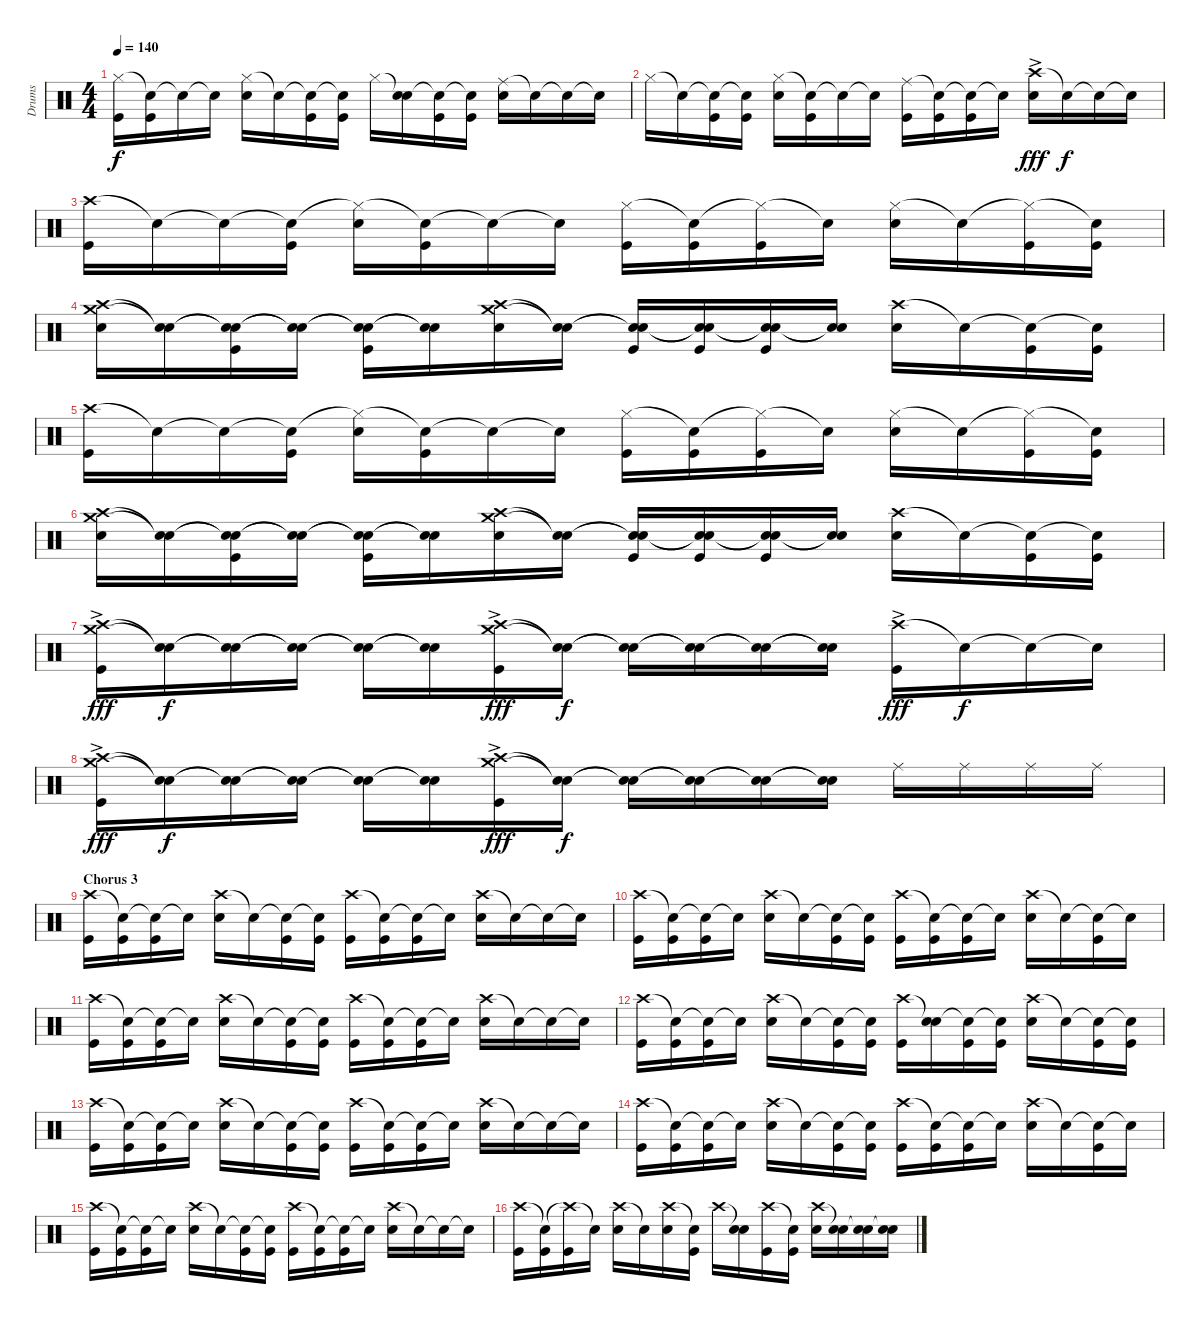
\track ("Drums" "Drums") {instrument percussion}
\staff {score}
\articulation defaults
\ts (4 4)
\tempo 140
\clef neutral
\ks c
("Hi-Hat (closed)" "Kick (hit)").16{dy f} ("Snare (hit)"{t} "Kick (hit)").16 "Snare (hit)"{t}.16 "Snare (hit)"{t}.16 ("Hi-Hat (closed)" "Electric Snare (hit)").16 "Snare (hit)"{t}.16 ("Snare (hit)"{t} "Kick (hit)").16 ("Snare (hit)"{t} "Kick (hit)").16 "Hi-Hat (closed)".16 ("Snare (hit)"{t} "Electric Snare (hit)").16 ("Snare (hit)"{t} "Kick (hit)").16 ("Snare (hit)"{t} "Kick (hit)").16 ("Ride (middle)" "Electric Snare (hit)").16 "Snare (hit)"{t}.16 "Snare (hit)"{t}.16 "Snare (hit)"{t}.16 |
"Hi-Hat (closed)".16 "Snare (hit)"{t}.16 ("Snare (hit)"{t} "Kick (hit)").16 ("Snare (hit)"{t} "Kick (hit)").16 ("Hi-Hat (closed)" "Electric Snare (hit)").16 ("Snare (hit)"{t} "Kick (hit)").16 "Snare (hit)"{t}.16 "Snare (hit)"{t}.16 ("Ride (middle)" "Kick (hit)").16 ("Snare (hit)"{t} "Kick (hit)").16 ("Snare (hit)"{t} "Kick (hit)").16 "Snare (hit)"{t}.16 ("Crash high (hit)"{ac} "Electric Snare (hit)").16{dy fff} "Snare (hit)"{t}.16{dy f} "Snare (hit)"{t}.16 "Snare (hit)"{t}.16 |
("Crash high (hit)" "Kick (hit)").16 "Snare (hit)"{t}.16 "Snare (hit)"{t}.16 ("Snare (hit)"{t} "Kick (hit)").16 ("Hi-Hat (closed)"{t} "Electric Snare (hit)").16 ("Snare (hit)"{t} "Kick (hit)").16 "Snare (hit)"{t}.16 "Snare (hit)"{t}.16 ("Hi-Hat (closed)" "Kick (hit)").16 ("Snare (hit)"{t} "Kick (hit)").16 ("Hi-Hat (closed)"{t} "Kick (hit)").16 "Snare (hit)"{t}.16 ("Hi-Hat (closed)" "Electric Snare (hit)").16 "Snare (hit)"{t}.16 ("Hi-Hat (closed)"{t} "Kick (hit)").16 ("Snare (hit)"{t} "Kick (hit)").16 |
("Crash medium (hit)" "Crash high (hit)" "Electric Snare (hit)").16 ("Snare (hit)"{t} "Snare (hit)"{t}).16 ("Snare (hit)"{t} "Snare (hit)"{t} "Kick (hit)").16 ("Snare (hit)"{t} "Snare (hit)"{t}).16 ("Snare (hit)"{t} "Snare (hit)"{t} "Kick (hit)").16 ("Snare (hit)"{t} "Snare (hit)"{t}).16 ("Crash medium (hit)" "Crash high (hit)" "Electric Snare (hit)").16 ("Snare (hit)"{t} "Snare (hit)"{t}).16 ("Snare (hit)"{t} "Snare (hit)"{t} "Kick (hit)").16 ("Snare (hit)"{t} "Snare (hit)"{t} "Kick (hit)").16 ("Snare (hit)"{t} "Snare (hit)"{t} "Kick (hit)").16 ("Snare (hit)"{t} "Snare (hit)"{t}).16 ("Crash high (hit)" "Electric Snare (hit)").16 "Snare (hit)"{t}.16 ("Snare (hit)"{t} "Kick (hit)").16 ("Snare (hit)"{t} "Kick (hit)").16 |
("Crash high (hit)" "Kick (hit)").16 "Snare (hit)"{t}.16 "Snare (hit)"{t}.16 ("Snare (hit)"{t} "Kick (hit)").16 ("Hi-Hat (closed)"{t} "Electric Snare (hit)").16 ("Snare (hit)"{t} "Kick (hit)").16 "Snare (hit)"{t}.16 "Snare (hit)"{t}.16 ("Hi-Hat (closed)" "Kick (hit)").16 ("Snare (hit)"{t} "Kick (hit)").16 ("Hi-Hat (closed)"{t} "Kick (hit)").16 "Snare (hit)"{t}.16 ("Hi-Hat (closed)" "Electric Snare (hit)").16 "Snare (hit)"{t}.16 ("Hi-Hat (closed)"{t} "Kick (hit)").16 ("Snare (hit)"{t} "Kick (hit)").16 |
("Crash medium (hit)" "Crash high (hit)" "Electric Snare (hit)").16 ("Snare (hit)"{t} "Snare (hit)"{t}).16 ("Snare (hit)"{t} "Snare (hit)"{t} "Kick (hit)").16 ("Snare (hit)"{t} "Snare (hit)"{t}).16 ("Snare (hit)"{t} "Snare (hit)"{t} "Kick (hit)").16 ("Snare (hit)"{t} "Snare (hit)"{t}).16 ("Crash medium (hit)" "Crash high (hit)" "Electric Snare (hit)").16 ("Snare (hit)"{t} "Snare (hit)"{t}).16 ("Snare (hit)"{t} "Snare (hit)"{t} "Kick (hit)").16 ("Snare (hit)"{t} "Snare (hit)"{t} "Kick (hit)").16 ("Snare (hit)"{t} "Snare (hit)"{t} "Kick (hit)").16 ("Snare (hit)"{t} "Snare (hit)"{t}).16 ("Crash high (hit)" "Electric Snare (hit)").16 "Snare (hit)"{t}.16 ("Snare (hit)"{t} "Kick (hit)").16 ("Snare (hit)"{t} "Kick (hit)").16 |
("Crash medium (hit)"{ac} "Crash high (hit)"{ac} "Kick (hit)").16{dy fff} ("Snare (hit)"{t} "Snare (hit)"{t}).16{dy f} ("Snare (hit)"{t} "Snare (hit)"{t}).16 ("Snare (hit)"{t} "Snare (hit)"{t}).16 ("Snare (hit)"{t} "Snare (hit)"{t}).16 ("Snare (hit)"{t} "Snare (hit)"{t}).16 ("Crash medium (hit)"{ac} "Crash high (hit)"{ac} "Kick (hit)").16{dy fff} ("Snare (hit)"{t} "Snare (hit)"{t}).16{dy f} ("Snare (hit)"{t} "Snare (hit)"{t}).16 ("Snare (hit)"{t} "Snare (hit)"{t}).16 ("Snare (hit)"{t} "Snare (hit)"{t}).16 ("Snare (hit)"{t} "Snare (hit)"{t}).16 ("Crash high (hit)"{ac} "Kick (hit)").16{dy fff} "Snare (hit)"{t}.16{dy f} "Snare (hit)"{t}.16 "Snare (hit)"{t}.16 |
("Crash medium (hit)"{ac} "Crash high (hit)"{ac} "Kick (hit)").16{dy fff} ("Snare (hit)"{t} "Snare (hit)"{t}).16{dy f} ("Snare (hit)"{t} "Snare (hit)"{t}).16 ("Snare (hit)"{t} "Snare (hit)"{t}).16 ("Snare (hit)"{t} "Snare (hit)"{t}).16 ("Snare (hit)"{t} "Snare (hit)"{t}).16 ("Crash medium (hit)"{ac} "Crash high (hit)"{ac} "Kick (hit)").16{dy fff} ("Snare (hit)"{t} "Snare (hit)"{t}).16{dy f} ("Snare (hit)"{t} "Snare (hit)"{t}).16 ("Snare (hit)"{t} "Snare (hit)"{t}).16 ("Snare (hit)"{t} "Snare (hit)"{t}).16 ("Snare (hit)"{t} "Snare (hit)"{t}).16 "Ride (middle)".16 "Ride (middle)".16 "Ride (middle)".16 "Ride (middle)".16 |
\section ("" "Chorus 3")
("Crash high (hit)" "Kick (hit)").16 ("Snare (hit)"{t} "Kick (hit)").16 ("Snare (hit)"{t} "Kick (hit)").16 "Snare (hit)"{t}.16 ("Crash high (hit)" "Electric Snare (hit)").16 "Snare (hit)"{t}.16 ("Snare (hit)"{t} "Kick (hit)").16 ("Snare (hit)"{t} "Kick (hit)").16 ("Crash high (hit)" "Kick (hit)").16 ("Snare (hit)"{t} "Kick (hit)").16 ("Snare (hit)"{t} "Kick (hit)").16 "Snare (hit)"{t}.16 ("Crash high (hit)" "Electric Snare (hit)").16 "Snare (hit)"{t}.16 "Snare (hit)"{t}.16 "Snare (hit)"{t}.16 |
("Crash high (hit)" "Kick (hit)").16 ("Snare (hit)"{t} "Kick (hit)").16 ("Snare (hit)"{t} "Kick (hit)").16 "Snare (hit)"{t}.16 ("Crash high (hit)" "Electric Snare (hit)").16 "Snare (hit)"{t}.16 ("Snare (hit)"{t} "Kick (hit)").16 ("Snare (hit)"{t} "Kick (hit)").16 ("Crash high (hit)" "Kick (hit)").16 ("Snare (hit)"{t} "Kick (hit)").16 ("Snare (hit)"{t} "Kick (hit)").16 "Snare (hit)"{t}.16 ("Crash high (hit)" "Electric Snare (hit)").16 "Snare (hit)"{t}.16 ("Snare (hit)"{t} "Kick (hit)").16 "Snare (hit)"{t}.16 |
("Crash high (hit)" "Kick (hit)").16 ("Snare (hit)"{t} "Kick (hit)").16 ("Snare (hit)"{t} "Kick (hit)").16 "Snare (hit)"{t}.16 ("Crash high (hit)" "Electric Snare (hit)").16 "Snare (hit)"{t}.16 ("Snare (hit)"{t} "Kick (hit)").16 ("Snare (hit)"{t} "Kick (hit)").16 ("Crash high (hit)" "Kick (hit)").16 ("Snare (hit)"{t} "Kick (hit)").16 ("Snare (hit)"{t} "Kick (hit)").16 "Snare (hit)"{t}.16 ("Crash high (hit)" "Electric Snare (hit)").16 "Snare (hit)"{t}.16 "Snare (hit)"{t}.16 "Snare (hit)"{t}.16 |
("Crash high (hit)" "Kick (hit)").16 ("Snare (hit)"{t} "Kick (hit)").16 ("Snare (hit)"{t} "Kick (hit)").16 "Snare (hit)"{t}.16 ("Crash high (hit)" "Electric Snare (hit)").16 "Snare (hit)"{t}.16 ("Snare (hit)"{t} "Kick (hit)").16 ("Snare (hit)"{t} "Kick (hit)").16 ("Crash high (hit)" "Kick (hit)").16 ("Snare (hit)"{t} "Electric Snare (hit)").16 ("Snare (hit)"{t} "Kick (hit)").16 ("Snare (hit)"{t} "Kick (hit)").16 ("Crash high (hit)" "Electric Snare (hit)").16 "Snare (hit)"{t}.16 ("Snare (hit)"{t} "Kick (hit)").16 ("Snare (hit)"{t} "Kick (hit)").16 |
("Crash high (hit)" "Kick (hit)").16 ("Snare (hit)"{t} "Kick (hit)").16 ("Snare (hit)"{t} "Kick (hit)").16 "Snare (hit)"{t}.16 ("Crash high (hit)" "Electric Snare (hit)").16 "Snare (hit)"{t}.16 ("Snare (hit)"{t} "Kick (hit)").16 ("Snare (hit)"{t} "Kick (hit)").16 ("Crash high (hit)" "Kick (hit)").16 ("Snare (hit)"{t} "Kick (hit)").16 ("Snare (hit)"{t} "Kick (hit)").16 "Snare (hit)"{t}.16 ("Crash high (hit)" "Electric Snare (hit)").16 "Snare (hit)"{t}.16 "Snare (hit)"{t}.16 "Snare (hit)"{t}.16 |
("Crash high (hit)" "Kick (hit)").16 ("Snare (hit)"{t} "Kick (hit)").16 ("Snare (hit)"{t} "Kick (hit)").16 "Snare (hit)"{t}.16 ("Crash high (hit)" "Electric Snare (hit)").16 "Snare (hit)"{t}.16 ("Snare (hit)"{t} "Kick (hit)").16 ("Snare (hit)"{t} "Kick (hit)").16 ("Crash high (hit)" "Kick (hit)").16 ("Snare (hit)"{t} "Kick (hit)").16 ("Snare (hit)"{t} "Kick (hit)").16 "Snare (hit)"{t}.16 ("Crash high (hit)" "Electric Snare (hit)").16 "Snare (hit)"{t}.16 ("Snare (hit)"{t} "Kick (hit)").16 "Snare (hit)"{t}.16 |
("Crash high (hit)" "Kick (hit)").16 ("Snare (hit)"{t} "Kick (hit)").16 ("Snare (hit)"{t} "Kick (hit)").16 "Snare (hit)"{t}.16 ("Crash high (hit)" "Electric Snare (hit)").16 "Snare (hit)"{t}.16 ("Snare (hit)"{t} "Kick (hit)").16 ("Snare (hit)"{t} "Kick (hit)").16 ("Crash high (hit)" "Kick (hit)").16 ("Snare (hit)"{t} "Kick (hit)").16 ("Snare (hit)"{t} "Kick (hit)").16 "Snare (hit)"{t}.16 ("Crash high (hit)" "Electric Snare (hit)").16 "Snare (hit)"{t}.16 "Snare (hit)"{t}.16 "Snare (hit)"{t}.16 |
("Crash high (hit)" "Kick (hit)").16 ("Snare (hit)"{t} "Kick (hit)").16 ("Crash high (hit)"{t} "Kick (hit)").16 "Snare (hit)"{t}.16 ("Crash high (hit)" "Electric Snare (hit)").16 "Snare (hit)"{t}.16 ("Crash high (hit)" "Electric Snare (hit)").16 ("Snare (hit)"{t} "Kick (hit)").16 "Crash high (hit)".16 ("Snare (hit)"{t} "Electric Snare (hit)").16 ("Crash high (hit)" "Kick (hit)").16 ("Snare (hit)"{t} "Kick (hit)").16 ("Crash high (hit)" "Electric Snare (hit)").16 ("Snare (hit)"{t} "Electric Snare (hit)").16 ("Snare (hit)"{t} "Electric Snare (hit)").16 ("Snare (hit)"{t} "Electric Snare (hit)").16
